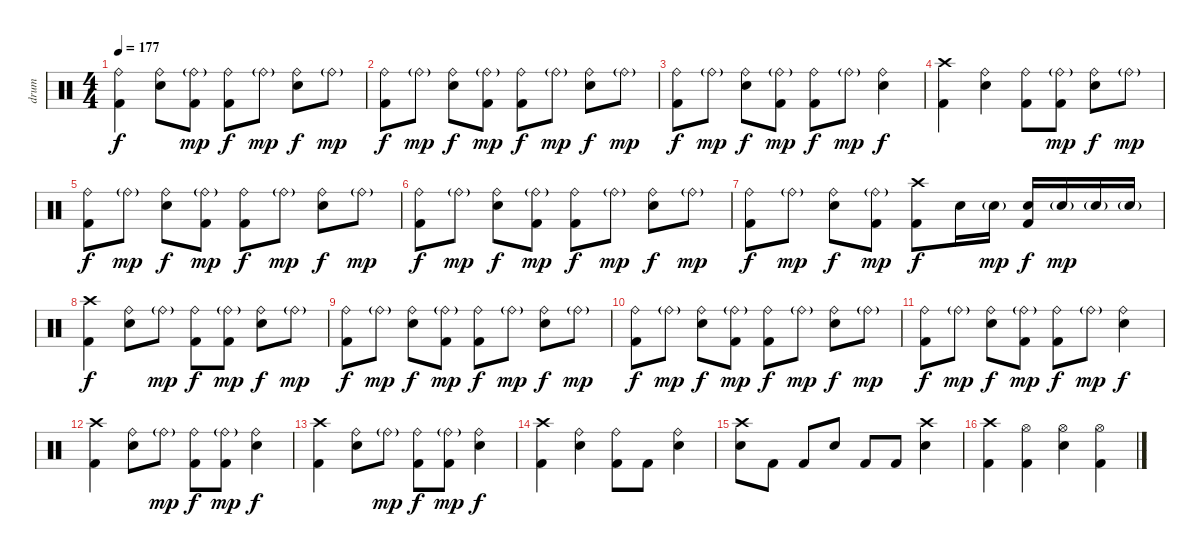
\track ("drum" "drum") {instrument percussion}
\staff {score}
\articulation defaults
\ts (4 4)
\tempo 177
\clef neutral
\ks c
("Ride (bell)" "Kick (hit) 2").4{dy f} ("Ride (bell)" "Electric Snare (hit)").8 ("Ride (bell)"{g} "Kick (hit) 2").8{dy mp} ("Ride (bell)" "Kick (hit) 2").8{dy f} "Ride (bell)"{g}.8{dy mp} ("Ride (bell)" "Electric Snare (hit)").8{dy f} "Ride (bell)"{g}.8{dy mp} |
("Ride (bell)" "Kick (hit) 2").8{dy f} "Ride (bell)"{g}.8{dy mp} ("Ride (bell)" "Electric Snare (hit)").8{dy f} ("Ride (bell)"{g} "Kick (hit) 2").8{dy mp} ("Ride (bell)" "Kick (hit) 2").8{dy f} "Ride (bell)"{g}.8{dy mp} ("Ride (bell)" "Electric Snare (hit)").8{dy f} "Ride (bell)"{g}.8{dy mp} |
("Ride (bell)" "Kick (hit) 2").8{dy f} "Ride (bell)"{g}.8{dy mp} ("Ride (bell)" "Electric Snare (hit)").8{dy f} ("Ride (bell)"{g} "Kick (hit) 2").8{dy mp} ("Ride (bell)" "Kick (hit) 2").8{dy f} "Ride (bell)"{g}.8{dy mp} ("Ride (bell)" "Electric Snare (hit)").4{dy f} |
("Crash high (hit)" "Kick (hit) 2").4 ("Ride (bell)" "Electric Snare (hit)").4 ("Ride (bell)" "Kick (hit) 2").8 ("Ride (bell)"{g} "Kick (hit) 2").8{dy mp} ("Ride (bell)" "Electric Snare (hit)").8{dy f} "Ride (bell)"{g}.8{dy mp} |
("Ride (bell)" "Kick (hit) 2").8{dy f} "Ride (bell)"{g}.8{dy mp} ("Ride (bell)" "Electric Snare (hit)").8{dy f} ("Ride (bell)"{g} "Kick (hit) 2").8{dy mp} ("Ride (bell)" "Kick (hit) 2").8{dy f} "Ride (bell)"{g}.8{dy mp} ("Ride (bell)" "Electric Snare (hit)").8{dy f} "Ride (bell)"{g}.8{dy mp} |
("Ride (bell)" "Kick (hit) 2").8{dy f} "Ride (bell)"{g}.8{dy mp} ("Ride (bell)" "Electric Snare (hit)").8{dy f} ("Ride (bell)"{g} "Kick (hit) 2").8{dy mp} ("Ride (bell)" "Kick (hit) 2").8{dy f} "Ride (bell)"{g}.8{dy mp} ("Ride (bell)" "Electric Snare (hit)").8{dy f} "Ride (bell)"{g}.8{dy mp} |
("Ride (bell)" "Kick (hit) 2").8{dy f} "Ride (bell)"{g}.8{dy mp} ("Ride (bell)" "Electric Snare (hit)").8{dy f} ("Ride (bell)"{g} "Kick (hit) 2").8{dy mp} ("Crash high (hit)" "Kick (hit) 2").8{dy f} "Electric Snare (hit)".16 "Electric Snare (hit)"{g}.16{dy mp} ("Electric Snare (hit)" "Kick (hit) 2").16{dy f} "Electric Snare (hit)"{g}.16{dy mp} "Electric Snare (hit)"{g}.16 "Electric Snare (hit)"{g}.16 |
("Crash high (hit)" "Kick (hit) 2").4{dy f} ("Ride (bell)" "Electric Snare (hit)").8 "Ride (bell)"{g}.8{dy mp} ("Ride (bell)" "Kick (hit) 2").8{dy f} ("Ride (bell)"{g} "Kick (hit) 2").8{dy mp} ("Ride (bell)" "Electric Snare (hit)").8{dy f} "Ride (bell)"{g}.8{dy mp} |
("Ride (bell)" "Kick (hit) 2").8{dy f} "Ride (bell)"{g}.8{dy mp} ("Ride (bell)" "Electric Snare (hit)").8{dy f} ("Ride (bell)"{g} "Kick (hit) 2").8{dy mp} ("Ride (bell)" "Kick (hit) 2").8{dy f} "Ride (bell)"{g}.8{dy mp} ("Ride (bell)" "Electric Snare (hit)").8{dy f} "Ride (bell)"{g}.8{dy mp} |
("Ride (bell)" "Kick (hit) 2").8{dy f} "Ride (bell)"{g}.8{dy mp} ("Ride (bell)" "Electric Snare (hit)").8{dy f} ("Ride (bell)"{g} "Kick (hit) 2").8{dy mp} ("Ride (bell)" "Kick (hit) 2").8{dy f} "Ride (bell)"{g}.8{dy mp} ("Ride (bell)" "Electric Snare (hit)").8{dy f} "Ride (bell)"{g}.8{dy mp} |
("Ride (bell)" "Kick (hit) 2").8{dy f} "Ride (bell)"{g}.8{dy mp} ("Ride (bell)" "Electric Snare (hit)").8{dy f} ("Ride (bell)"{g} "Kick (hit) 2").8{dy mp} ("Ride (bell)" "Kick (hit) 2").8{dy f} "Ride (bell)"{g}.8{dy mp} ("Ride (bell)" "Electric Snare (hit)").4{dy f} |
("Crash high (hit)" "Kick (hit) 2").4 ("Ride (bell)" "Electric Snare (hit)").8 "Ride (bell)"{g}.8{dy mp} ("Ride (bell)" "Kick (hit) 2").8{dy f} ("Ride (bell)"{g} "Kick (hit) 2").8{dy mp} ("Ride (bell)" "Electric Snare (hit)").4{dy f} |
("Crash high (hit)" "Kick (hit) 2").4 ("Ride (bell)" "Electric Snare (hit)").8 "Ride (bell)"{g}.8{dy mp} ("Ride (bell)" "Kick (hit) 2").8{dy f} ("Ride (bell)"{g} "Kick (hit) 2").8{dy mp} ("Ride (bell)" "Electric Snare (hit)").4{dy f} |
("Crash high (hit)" "Kick (hit) 2").4 ("Ride (bell)" "Electric Snare (hit)").4 ("Ride (bell)" "Kick (hit) 2").8 "Kick (hit) 2".8 ("Ride (bell)" "Electric Snare (hit)").4 |
("Crash high (hit)" "Electric Snare (hit)").8 "Kick (hit) 2".8 "Kick (hit) 2".8 "Electric Snare (hit)".8 "Kick (hit) 2".8 "Kick (hit) 2".8 ("Crash high (hit)" "Electric Snare (hit)").4 |
\section ("" "")
("Crash high (hit)" "Kick (hit) 2").4 ("Hi-Hat (open)" "Kick (hit) 2").4 ("Hi-Hat (open)" "Electric Snare (hit)").4 ("Hi-Hat (open)" "Kick (hit) 2").4
